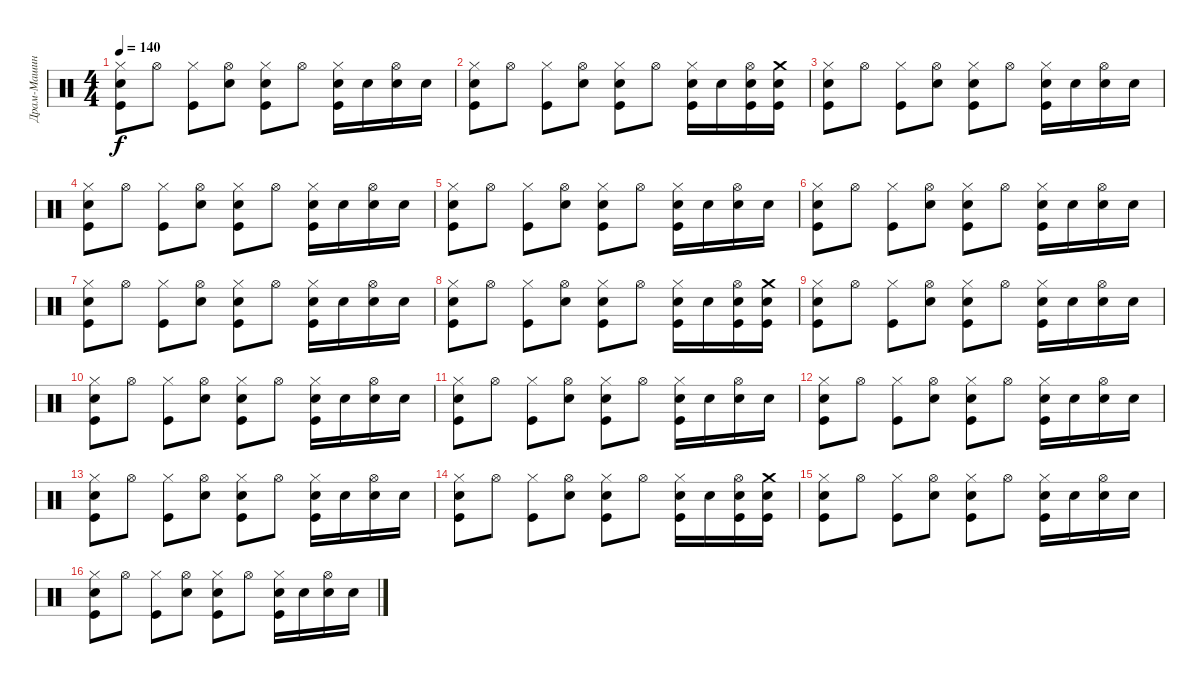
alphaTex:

\track ("Драм-Машина" "Драм-Машин") {instrument percussion}
\staff {score}
\articulation defaults
\ts (4 4)
\tempo 140
\clef neutral
\ks c
("Snare (hit) 2" "Hi-Hat (closed)" "Kick (hit)").8{dy f} "Hi-Hat (open)".8 ("Hi-Hat (closed)" "Kick (hit)").8 ("Snare (hit) 2" "Hi-Hat (open)").8 ("Snare (hit) 2" "Hi-Hat (closed)" "Kick (hit)").8 "Hi-Hat (open)".8 ("Snare (hit) 2" "Hi-Hat (closed)" "Kick (hit)").16 "Snare (hit) 2".16 ("Snare (hit) 2" "Hi-Hat (open)").16 "Snare (hit) 2".16 |
("Snare (hit) 2" "Hi-Hat (closed)" "Kick (hit)").8 "Hi-Hat (open)".8 ("Hi-Hat (closed)" "Kick (hit)").8 ("Snare (hit) 2" "Hi-Hat (open)").8 ("Snare (hit) 2" "Hi-Hat (closed)" "Kick (hit)").8 "Hi-Hat (open)".8 ("Snare (hit) 2" "Hi-Hat (closed)" "Kick (hit)").16 "Snare (hit) 2".16 ("Kick (hit)" "Snare (hit) 2" "Hi-Hat (open)").16 ("Crash medium (hit)" "Kick (hit)" "Snare (hit) 2").16 |
("Snare (hit) 2" "Hi-Hat (closed)" "Kick (hit)").8 "Hi-Hat (open)".8 ("Hi-Hat (closed)" "Kick (hit)").8 ("Snare (hit) 2" "Hi-Hat (open)").8 ("Snare (hit) 2" "Hi-Hat (closed)" "Kick (hit)").8 "Hi-Hat (open)".8 ("Snare (hit) 2" "Hi-Hat (closed)" "Kick (hit)").16 "Snare (hit) 2".16 ("Snare (hit) 2" "Hi-Hat (open)").16 "Snare (hit) 2".16 |
("Snare (hit) 2" "Hi-Hat (closed)" "Kick (hit)").8 "Hi-Hat (open)".8 ("Hi-Hat (closed)" "Kick (hit)").8 ("Snare (hit) 2" "Hi-Hat (open)").8 ("Snare (hit) 2" "Hi-Hat (closed)" "Kick (hit)").8 "Hi-Hat (open)".8 ("Snare (hit) 2" "Hi-Hat (closed)" "Kick (hit)").16 "Snare (hit) 2".16 ("Snare (hit) 2" "Hi-Hat (open)").16 "Snare (hit) 2".16 |
("Snare (hit) 2" "Hi-Hat (closed)" "Kick (hit)").8 "Hi-Hat (open)".8 ("Hi-Hat (closed)" "Kick (hit)").8 ("Snare (hit) 2" "Hi-Hat (open)").8 ("Snare (hit) 2" "Hi-Hat (closed)" "Kick (hit)").8 "Hi-Hat (open)".8 ("Snare (hit) 2" "Hi-Hat (closed)" "Kick (hit)").16 "Snare (hit) 2".16 ("Snare (hit) 2" "Hi-Hat (open)").16 "Snare (hit) 2".16 |
("Snare (hit) 2" "Hi-Hat (closed)" "Kick (hit)").8 "Hi-Hat (open)".8 ("Hi-Hat (closed)" "Kick (hit)").8 ("Snare (hit) 2" "Hi-Hat (open)").8 ("Snare (hit) 2" "Hi-Hat (closed)" "Kick (hit)").8 "Hi-Hat (open)".8 ("Snare (hit) 2" "Hi-Hat (closed)" "Kick (hit)").16 "Snare (hit) 2".16 ("Snare (hit) 2" "Hi-Hat (open)").16 "Snare (hit) 2".16 |
("Snare (hit) 2" "Hi-Hat (closed)" "Kick (hit)").8 "Hi-Hat (open)".8 ("Hi-Hat (closed)" "Kick (hit)").8 ("Snare (hit) 2" "Hi-Hat (open)").8 ("Snare (hit) 2" "Hi-Hat (closed)" "Kick (hit)").8 "Hi-Hat (open)".8 ("Snare (hit) 2" "Hi-Hat (closed)" "Kick (hit)").16 "Snare (hit) 2".16 ("Snare (hit) 2" "Hi-Hat (open)").16 "Snare (hit) 2".16 |
("Snare (hit) 2" "Hi-Hat (closed)" "Kick (hit)").8 "Hi-Hat (open)".8 ("Hi-Hat (closed)" "Kick (hit)").8 ("Snare (hit) 2" "Hi-Hat (open)").8 ("Snare (hit) 2" "Hi-Hat (closed)" "Kick (hit)").8 "Hi-Hat (open)".8 ("Snare (hit) 2" "Hi-Hat (closed)" "Kick (hit)").16 "Snare (hit) 2".16 ("Kick (hit)" "Snare (hit) 2" "Hi-Hat (open)").16 ("Crash medium (hit)" "Kick (hit)" "Snare (hit) 2").16 |
("Snare (hit) 2" "Hi-Hat (closed)" "Kick (hit)").8 "Hi-Hat (open)".8 ("Hi-Hat (closed)" "Kick (hit)").8 ("Snare (hit) 2" "Hi-Hat (open)").8 ("Snare (hit) 2" "Hi-Hat (closed)" "Kick (hit)").8 "Hi-Hat (open)".8 ("Snare (hit) 2" "Hi-Hat (closed)" "Kick (hit)").16 "Snare (hit) 2".16 ("Snare (hit) 2" "Hi-Hat (open)").16 "Snare (hit) 2".16 |
("Snare (hit) 2" "Hi-Hat (closed)" "Kick (hit)").8 "Hi-Hat (open)".8 ("Hi-Hat (closed)" "Kick (hit)").8 ("Snare (hit) 2" "Hi-Hat (open)").8 ("Snare (hit) 2" "Hi-Hat (closed)" "Kick (hit)").8 "Hi-Hat (open)".8 ("Snare (hit) 2" "Hi-Hat (closed)" "Kick (hit)").16 "Snare (hit) 2".16 ("Snare (hit) 2" "Hi-Hat (open)").16 "Snare (hit) 2".16 |
("Snare (hit) 2" "Hi-Hat (closed)" "Kick (hit)").8 "Hi-Hat (open)".8 ("Hi-Hat (closed)" "Kick (hit)").8 ("Snare (hit) 2" "Hi-Hat (open)").8 ("Snare (hit) 2" "Hi-Hat (closed)" "Kick (hit)").8 "Hi-Hat (open)".8 ("Snare (hit) 2" "Hi-Hat (closed)" "Kick (hit)").16 "Snare (hit) 2".16 ("Snare (hit) 2" "Hi-Hat (open)").16 "Snare (hit) 2".16 |
("Snare (hit) 2" "Hi-Hat (closed)" "Kick (hit)").8 "Hi-Hat (open)".8 ("Hi-Hat (closed)" "Kick (hit)").8 ("Snare (hit) 2" "Hi-Hat (open)").8 ("Snare (hit) 2" "Hi-Hat (closed)" "Kick (hit)").8 "Hi-Hat (open)".8 ("Snare (hit) 2" "Hi-Hat (closed)" "Kick (hit)").16 "Snare (hit) 2".16 ("Snare (hit) 2" "Hi-Hat (open)").16 "Snare (hit) 2".16 |
("Snare (hit) 2" "Hi-Hat (closed)" "Kick (hit)").8 "Hi-Hat (open)".8 ("Hi-Hat (closed)" "Kick (hit)").8 ("Snare (hit) 2" "Hi-Hat (open)").8 ("Snare (hit) 2" "Hi-Hat (closed)" "Kick (hit)").8 "Hi-Hat (open)".8 ("Snare (hit) 2" "Hi-Hat (closed)" "Kick (hit)").16 "Snare (hit) 2".16 ("Snare (hit) 2" "Hi-Hat (open)").16 "Snare (hit) 2".16 |
("Snare (hit) 2" "Hi-Hat (closed)" "Kick (hit)").8 "Hi-Hat (open)".8 ("Hi-Hat (closed)" "Kick (hit)").8 ("Snare (hit) 2" "Hi-Hat (open)").8 ("Snare (hit) 2" "Hi-Hat (closed)" "Kick (hit)").8 "Hi-Hat (open)".8 ("Snare (hit) 2" "Hi-Hat (closed)" "Kick (hit)").16 "Snare (hit) 2".16 ("Kick (hit)" "Snare (hit) 2" "Hi-Hat (open)").16 ("Crash medium (hit)" "Kick (hit)" "Snare (hit) 2").16 |
("Snare (hit) 2" "Hi-Hat (closed)" "Kick (hit)").8 "Hi-Hat (open)".8 ("Hi-Hat (closed)" "Kick (hit)").8 ("Snare (hit) 2" "Hi-Hat (open)").8 ("Snare (hit) 2" "Hi-Hat (closed)" "Kick (hit)").8 "Hi-Hat (open)".8 ("Snare (hit) 2" "Hi-Hat (closed)" "Kick (hit)").16 "Snare (hit) 2".16 ("Snare (hit) 2" "Hi-Hat (open)").16 "Snare (hit) 2".16 |
("Snare (hit) 2" "Hi-Hat (closed)" "Kick (hit)").8 "Hi-Hat (open)".8 ("Hi-Hat (closed)" "Kick (hit)").8 ("Snare (hit) 2" "Hi-Hat (open)").8 ("Snare (hit) 2" "Hi-Hat (closed)" "Kick (hit)").8 "Hi-Hat (open)".8 ("Snare (hit) 2" "Hi-Hat (closed)" "Kick (hit)").16 "Snare (hit) 2".16 ("Snare (hit) 2" "Hi-Hat (open)").16 "Snare (hit) 2".16
